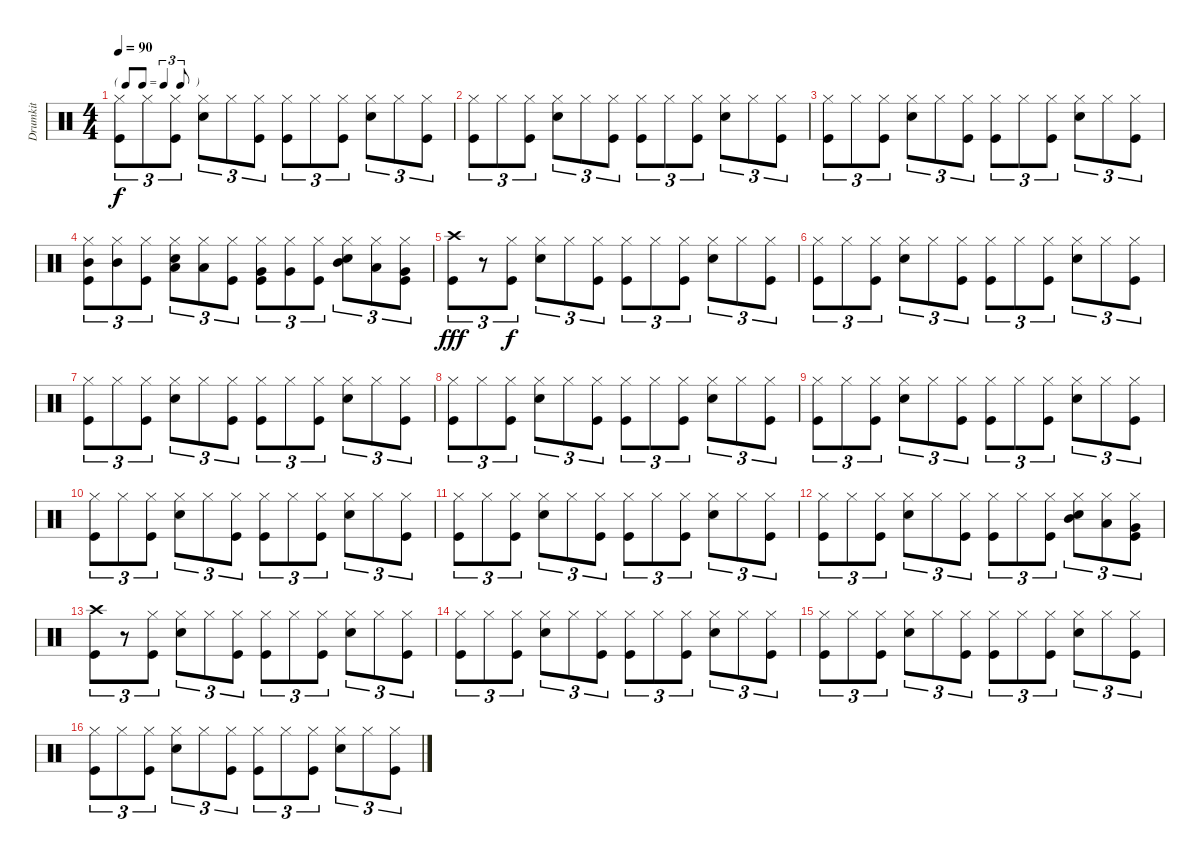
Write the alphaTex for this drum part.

\track ("Drumkit" "Drumkit") {instrument percussion}
\staff {score}
\articulation defaults
\ts (4 4)
\tf triplet8th
\tempo 90
\clef neutral
\ks c
("Hi-Hat (closed)" "Kick (hit)").8{tu (3 2) dy f} "Hi-Hat (closed)".8{tu (3 2)} ("Hi-Hat (closed)" "Kick (hit)").8{tu (3 2)} ("Hi-Hat (closed)" "Snare (hit) 2").8{tu (3 2)} "Hi-Hat (closed)".8{tu (3 2)} ("Hi-Hat (closed)" "Kick (hit)").8{tu (3 2)} ("Hi-Hat (closed)" "Kick (hit)").8{tu (3 2)} "Hi-Hat (closed)".8{tu (3 2)} ("Hi-Hat (closed)" "Kick (hit)").8{tu (3 2)} ("Hi-Hat (closed)" "Snare (hit) 2").8{tu (3 2)} "Hi-Hat (closed)".8{tu (3 2)} ("Hi-Hat (closed)" "Kick (hit)").8{tu (3 2)} |
("Hi-Hat (closed)" "Kick (hit)").8{tu (3 2)} "Hi-Hat (closed)".8{tu (3 2)} ("Hi-Hat (closed)" "Kick (hit)").8{tu (3 2)} ("Hi-Hat (closed)" "Snare (hit) 2").8{tu (3 2)} "Hi-Hat (closed)".8{tu (3 2)} ("Hi-Hat (closed)" "Kick (hit)").8{tu (3 2)} ("Hi-Hat (closed)" "Kick (hit)").8{tu (3 2)} "Hi-Hat (closed)".8{tu (3 2)} ("Hi-Hat (closed)" "Kick (hit)").8{tu (3 2)} ("Hi-Hat (closed)" "Snare (hit) 2").8{tu (3 2)} "Hi-Hat (closed)".8{tu (3 2)} ("Hi-Hat (closed)" "Kick (hit)").8{tu (3 2)} |
("Hi-Hat (closed)" "Kick (hit)").8{tu (3 2)} "Hi-Hat (closed)".8{tu (3 2)} ("Hi-Hat (closed)" "Kick (hit)").8{tu (3 2)} ("Hi-Hat (closed)" "Snare (hit) 2").8{tu (3 2)} "Hi-Hat (closed)".8{tu (3 2)} ("Hi-Hat (closed)" "Kick (hit)").8{tu (3 2)} ("Hi-Hat (closed)" "Kick (hit)").8{tu (3 2)} "Hi-Hat (closed)".8{tu (3 2)} ("Hi-Hat (closed)" "Kick (hit)").8{tu (3 2)} ("Hi-Hat (closed)" "Snare (hit) 2").8{tu (3 2)} "Hi-Hat (closed)".8{tu (3 2)} ("Hi-Hat (closed)" "Kick (hit)").8{tu (3 2)} |
("Hi-Hat (closed)" "Mid Tom (hit)" "Kick (hit)").8{tu (3 2)} ("Hi-Hat (closed)" "Mid Tom (hit)").8{tu (3 2)} ("Hi-Hat (closed)" "Kick (hit)").8{tu (3 2)} ("Hi-Hat (closed)" "Low Tom (hit)" "Snare (hit) 2").8{tu (3 2)} ("Hi-Hat (closed)" "Low Tom (hit)").8{tu (3 2)} ("Hi-Hat (closed)" "Kick (hit)").8{tu (3 2)} ("Hi-Hat (closed)" "Very Low Tom (hit)" "Kick (hit)").8{tu (3 2)} ("Hi-Hat (closed)" "Very Low Tom (hit)").8{tu (3 2)} ("Hi-Hat (closed)" "Kick (hit)").8{tu (3 2)} ("Hi-Hat (closed)" "Mid Tom (hit)" "Snare (hit) 2").8{tu (3 2)} ("Hi-Hat (closed)" "Low Tom (hit)").8{tu (3 2)} ("Hi-Hat (closed)" "Very Low Tom (hit)" "Kick (hit)").8{tu (3 2)} |
("Crash high (hit)" "Kick (hit)").8{tu (3 2) dy fff} r.8{tu (3 2)} ("Hi-Hat (closed)" "Kick (hit)").8{tu (3 2) dy f} ("Hi-Hat (closed)" "Snare (hit) 2").8{tu (3 2)} "Hi-Hat (closed)".8{tu (3 2)} ("Hi-Hat (closed)" "Kick (hit)").8{tu (3 2)} ("Hi-Hat (closed)" "Kick (hit)").8{tu (3 2)} "Hi-Hat (closed)".8{tu (3 2)} ("Hi-Hat (closed)" "Kick (hit)").8{tu (3 2)} ("Hi-Hat (closed)" "Snare (hit) 2").8{tu (3 2)} "Hi-Hat (closed)".8{tu (3 2)} ("Hi-Hat (closed)" "Kick (hit)").8{tu (3 2)} |
("Hi-Hat (closed)" "Kick (hit)").8{tu (3 2)} "Hi-Hat (closed)".8{tu (3 2)} ("Hi-Hat (closed)" "Kick (hit)").8{tu (3 2)} ("Hi-Hat (closed)" "Snare (hit) 2").8{tu (3 2)} "Hi-Hat (closed)".8{tu (3 2)} ("Hi-Hat (closed)" "Kick (hit)").8{tu (3 2)} ("Hi-Hat (closed)" "Kick (hit)").8{tu (3 2)} "Hi-Hat (closed)".8{tu (3 2)} ("Hi-Hat (closed)" "Kick (hit)").8{tu (3 2)} ("Hi-Hat (closed)" "Snare (hit) 2").8{tu (3 2)} "Hi-Hat (closed)".8{tu (3 2)} ("Hi-Hat (closed)" "Kick (hit)").8{tu (3 2)} |
("Hi-Hat (closed)" "Kick (hit)").8{tu (3 2)} "Hi-Hat (closed)".8{tu (3 2)} ("Hi-Hat (closed)" "Kick (hit)").8{tu (3 2)} ("Hi-Hat (closed)" "Snare (hit) 2").8{tu (3 2)} "Hi-Hat (closed)".8{tu (3 2)} ("Hi-Hat (closed)" "Kick (hit)").8{tu (3 2)} ("Hi-Hat (closed)" "Kick (hit)").8{tu (3 2)} "Hi-Hat (closed)".8{tu (3 2)} ("Hi-Hat (closed)" "Kick (hit)").8{tu (3 2)} ("Hi-Hat (closed)" "Snare (hit) 2").8{tu (3 2)} "Hi-Hat (closed)".8{tu (3 2)} ("Hi-Hat (closed)" "Kick (hit)").8{tu (3 2)} |
("Hi-Hat (closed)" "Kick (hit)").8{tu (3 2)} "Hi-Hat (closed)".8{tu (3 2)} ("Hi-Hat (closed)" "Kick (hit)").8{tu (3 2)} ("Hi-Hat (closed)" "Snare (hit) 2").8{tu (3 2)} "Hi-Hat (closed)".8{tu (3 2)} ("Hi-Hat (closed)" "Kick (hit)").8{tu (3 2)} ("Hi-Hat (closed)" "Kick (hit)").8{tu (3 2)} "Hi-Hat (closed)".8{tu (3 2)} ("Hi-Hat (closed)" "Kick (hit)").8{tu (3 2)} ("Hi-Hat (closed)" "Snare (hit) 2").8{tu (3 2)} "Hi-Hat (closed)".8{tu (3 2)} ("Hi-Hat (closed)" "Kick (hit)").8{tu (3 2)} |
("Hi-Hat (closed)" "Kick (hit)").8{tu (3 2)} "Hi-Hat (closed)".8{tu (3 2)} ("Hi-Hat (closed)" "Kick (hit)").8{tu (3 2)} ("Hi-Hat (closed)" "Snare (hit) 2").8{tu (3 2)} "Hi-Hat (closed)".8{tu (3 2)} ("Hi-Hat (closed)" "Kick (hit)").8{tu (3 2)} ("Hi-Hat (closed)" "Kick (hit)").8{tu (3 2)} "Hi-Hat (closed)".8{tu (3 2)} ("Hi-Hat (closed)" "Kick (hit)").8{tu (3 2)} ("Hi-Hat (closed)" "Snare (hit) 2").8{tu (3 2)} "Hi-Hat (closed)".8{tu (3 2)} ("Hi-Hat (closed)" "Kick (hit)").8{tu (3 2)} |
("Hi-Hat (closed)" "Kick (hit)").8{tu (3 2)} "Hi-Hat (closed)".8{tu (3 2)} ("Hi-Hat (closed)" "Kick (hit)").8{tu (3 2)} ("Hi-Hat (closed)" "Snare (hit) 2").8{tu (3 2)} "Hi-Hat (closed)".8{tu (3 2)} ("Hi-Hat (closed)" "Kick (hit)").8{tu (3 2)} ("Hi-Hat (closed)" "Kick (hit)").8{tu (3 2)} "Hi-Hat (closed)".8{tu (3 2)} ("Hi-Hat (closed)" "Kick (hit)").8{tu (3 2)} ("Hi-Hat (closed)" "Snare (hit) 2").8{tu (3 2)} "Hi-Hat (closed)".8{tu (3 2)} ("Hi-Hat (closed)" "Kick (hit)").8{tu (3 2)} |
("Hi-Hat (closed)" "Kick (hit)").8{tu (3 2)} "Hi-Hat (closed)".8{tu (3 2)} ("Hi-Hat (closed)" "Kick (hit)").8{tu (3 2)} ("Hi-Hat (closed)" "Snare (hit) 2").8{tu (3 2)} "Hi-Hat (closed)".8{tu (3 2)} ("Hi-Hat (closed)" "Kick (hit)").8{tu (3 2)} ("Hi-Hat (closed)" "Kick (hit)").8{tu (3 2)} "Hi-Hat (closed)".8{tu (3 2)} ("Hi-Hat (closed)" "Kick (hit)").8{tu (3 2)} ("Hi-Hat (closed)" "Snare (hit) 2").8{tu (3 2)} "Hi-Hat (closed)".8{tu (3 2)} ("Hi-Hat (closed)" "Kick (hit)").8{tu (3 2)} |
("Hi-Hat (closed)" "Kick (hit)").8{tu (3 2)} "Hi-Hat (closed)".8{tu (3 2)} ("Hi-Hat (closed)" "Kick (hit)").8{tu (3 2)} ("Hi-Hat (closed)" "Snare (hit) 2").8{tu (3 2)} "Hi-Hat (closed)".8{tu (3 2)} ("Hi-Hat (closed)" "Kick (hit)").8{tu (3 2)} ("Hi-Hat (closed)" "Kick (hit)").8{tu (3 2)} "Hi-Hat (closed)".8{tu (3 2)} ("Hi-Hat (closed)" "Kick (hit)").8{tu (3 2)} ("Hi-Hat (closed)" "Mid Tom (hit)" "Snare (hit) 2").8{tu (3 2)} ("Hi-Hat (closed)" "Low Tom (hit)").8{tu (3 2)} ("Hi-Hat (closed)" "Very Low Tom (hit)" "Kick (hit)").8{tu (3 2)} |
("Crash high (hit)" "Kick (hit)").8{tu (3 2)} r.8{tu (3 2)} ("Hi-Hat (closed)" "Kick (hit)").8{tu (3 2)} ("Hi-Hat (closed)" "Snare (hit) 2").8{tu (3 2)} "Hi-Hat (closed)".8{tu (3 2)} ("Hi-Hat (closed)" "Kick (hit)").8{tu (3 2)} ("Hi-Hat (closed)" "Kick (hit)").8{tu (3 2)} "Hi-Hat (closed)".8{tu (3 2)} ("Hi-Hat (closed)" "Kick (hit)").8{tu (3 2)} ("Hi-Hat (closed)" "Snare (hit) 2").8{tu (3 2)} "Hi-Hat (closed)".8{tu (3 2)} ("Hi-Hat (closed)" "Kick (hit)").8{tu (3 2)} |
("Hi-Hat (closed)" "Kick (hit)").8{tu (3 2)} "Hi-Hat (closed)".8{tu (3 2)} ("Hi-Hat (closed)" "Kick (hit)").8{tu (3 2)} ("Hi-Hat (closed)" "Snare (hit) 2").8{tu (3 2)} "Hi-Hat (closed)".8{tu (3 2)} ("Hi-Hat (closed)" "Kick (hit)").8{tu (3 2)} ("Hi-Hat (closed)" "Kick (hit)").8{tu (3 2)} "Hi-Hat (closed)".8{tu (3 2)} ("Hi-Hat (closed)" "Kick (hit)").8{tu (3 2)} ("Hi-Hat (closed)" "Snare (hit) 2").8{tu (3 2)} "Hi-Hat (closed)".8{tu (3 2)} ("Hi-Hat (closed)" "Kick (hit)").8{tu (3 2)} |
("Hi-Hat (closed)" "Kick (hit)").8{tu (3 2)} "Hi-Hat (closed)".8{tu (3 2)} ("Hi-Hat (closed)" "Kick (hit)").8{tu (3 2)} ("Hi-Hat (closed)" "Snare (hit) 2").8{tu (3 2)} "Hi-Hat (closed)".8{tu (3 2)} ("Hi-Hat (closed)" "Kick (hit)").8{tu (3 2)} ("Hi-Hat (closed)" "Kick (hit)").8{tu (3 2)} "Hi-Hat (closed)".8{tu (3 2)} ("Hi-Hat (closed)" "Kick (hit)").8{tu (3 2)} ("Hi-Hat (closed)" "Snare (hit) 2").8{tu (3 2)} "Hi-Hat (closed)".8{tu (3 2)} ("Hi-Hat (closed)" "Kick (hit)").8{tu (3 2)} |
("Hi-Hat (closed)" "Kick (hit)").8{tu (3 2)} "Hi-Hat (closed)".8{tu (3 2)} ("Hi-Hat (closed)" "Kick (hit)").8{tu (3 2)} ("Hi-Hat (closed)" "Snare (hit) 2").8{tu (3 2)} "Hi-Hat (closed)".8{tu (3 2)} ("Hi-Hat (closed)" "Kick (hit)").8{tu (3 2)} ("Hi-Hat (closed)" "Kick (hit)").8{tu (3 2)} "Hi-Hat (closed)".8{tu (3 2)} ("Hi-Hat (closed)" "Kick (hit)").8{tu (3 2)} ("Hi-Hat (closed)" "Snare (hit) 2").8{tu (3 2)} "Hi-Hat (closed)".8{tu (3 2)} ("Hi-Hat (closed)" "Kick (hit)").8{tu (3 2)}
